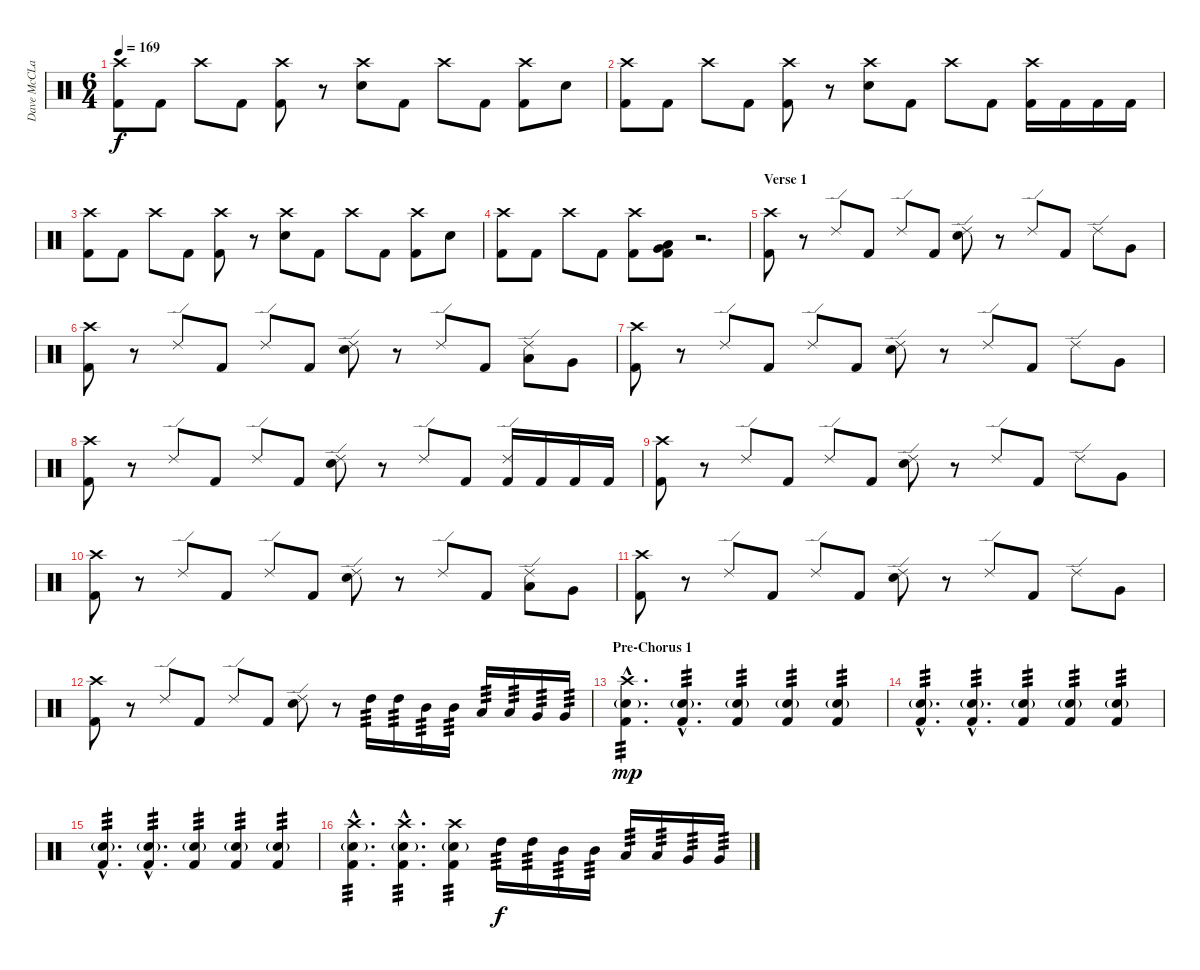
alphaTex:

\track ("Dave McCLain" "Dave McCLa") {instrument percussion}
\staff {score}
\articulation defaults
\ts (6 4)
\tempo 169
\clef neutral
\ks c
("Crash high (hit)" "Kick (hit) 2").8{dy f} "Kick (hit) 2".8 "Crash high (hit)".8 "Kick (hit) 2".8 ("Crash high (hit)" "Kick (hit) 2").8 r.8 ("Crash high (hit)" "Electric Snare (hit)").8 "Kick (hit) 2".8 "Crash high (hit)".8 "Kick (hit) 2".8 ("Crash high (hit)" "Kick (hit) 2").8 "Electric Snare (hit)".8 |
("Crash high (hit)" "Kick (hit) 2").8 "Kick (hit) 2".8 "Crash high (hit)".8 "Kick (hit) 2".8 ("Crash high (hit)" "Kick (hit) 2").8 r.8 ("Crash high (hit)" "Electric Snare (hit)").8 "Kick (hit) 2".8 "Crash high (hit)".8 "Kick (hit) 2".8 ("Crash high (hit)" "Kick (hit) 2").16 "Kick (hit) 2".16 "Kick (hit) 2".16 "Kick (hit) 2".16 |
("Crash high (hit)" "Kick (hit) 2").8 "Kick (hit) 2".8 "Crash high (hit)".8 "Kick (hit) 2".8 ("Crash high (hit)" "Kick (hit) 2").8 r.8 ("Crash high (hit)" "Electric Snare (hit)").8 "Kick (hit) 2".8 "Crash high (hit)".8 "Kick (hit) 2".8 ("Crash high (hit)" "Kick (hit) 2").8 "Electric Snare (hit)".8 |
("Crash high (hit)" "Kick (hit) 2").8 "Kick (hit) 2".8 "Crash high (hit)".8 "Kick (hit) 2".8 ("Crash high (hit)" "Kick (hit) 2").8 ("Low Tom (hit)" "Very Low Tom (hit)" "Kick (hit) 2").8 r.2{d} |
\section ("" "Verse 1")
("Crash high (hit)" "Kick (hit) 2").8 r.8 "Ride (edge) 2".8 "Kick (hit) 2".8 "Ride (edge) 2".8 "Kick (hit) 2".8 ("Ride (edge) 2" "Electric Snare (hit)").8 r.8 "Ride (edge) 2".8 "Kick (hit) 2".8 "Ride (edge) 2".8 "Very Low Tom (hit)".8 |
("Crash high (hit)" "Kick (hit) 2").8 r.8 "Ride (edge) 2".8 "Kick (hit) 2".8 "Ride (edge) 2".8 "Kick (hit) 2".8 ("Ride (edge) 2" "Electric Snare (hit)").8 r.8 "Ride (edge) 2".8 "Kick (hit) 2".8 ("Ride (edge) 2" "Low Floor Tom (hit)").8 "Very Low Tom (hit)".8 |
("Crash high (hit)" "Kick (hit) 2").8 r.8 "Ride (edge) 2".8 "Kick (hit) 2".8 "Ride (edge) 2".8 "Kick (hit) 2".8 ("Ride (edge) 2" "Electric Snare (hit)").8 r.8 "Ride (edge) 2".8 "Kick (hit) 2".8 "Ride (edge) 2".8 "Very Low Tom (hit)".8 |
("Crash high (hit)" "Kick (hit) 2").8 r.8 "Ride (edge) 2".8 "Kick (hit) 2".8 "Ride (edge) 2".8 "Kick (hit) 2".8 ("Ride (edge) 2" "Electric Snare (hit)").8 r.8 "Ride (edge) 2".8 "Kick (hit) 2".8 ("Ride (edge) 2" "Kick (hit) 2").16 "Kick (hit) 2".16 "Kick (hit) 2".16 "Kick (hit) 2".16 |
("Crash high (hit)" "Kick (hit) 2").8 r.8 "Ride (edge) 2".8 "Kick (hit) 2".8 "Ride (edge) 2".8 "Kick (hit) 2".8 ("Ride (edge) 2" "Electric Snare (hit)").8 r.8 "Ride (edge) 2".8 "Kick (hit) 2".8 "Ride (edge) 2".8 "Very Low Tom (hit)".8 |
("Crash high (hit)" "Kick (hit) 2").8 r.8 "Ride (edge) 2".8 "Kick (hit) 2".8 "Ride (edge) 2".8 "Kick (hit) 2".8 ("Ride (edge) 2" "Electric Snare (hit)").8 r.8 "Ride (edge) 2".8 "Kick (hit) 2".8 ("Ride (edge) 2" "Low Tom (hit)").8 "Very Low Tom (hit)".8 |
("Crash high (hit)" "Kick (hit) 2").8 r.8 "Ride (edge) 2".8 "Kick (hit) 2".8 "Ride (edge) 2".8 "Kick (hit) 2".8 ("Ride (edge) 2" "Electric Snare (hit)").8 r.8 "Ride (edge) 2".8 "Kick (hit) 2".8 "Ride (edge) 2".8 "Very Low Tom (hit)".8 |
("Crash high (hit)" "Kick (hit) 2").8 r.8 "Ride (edge) 2".8 "Kick (hit) 2".8 "Ride (edge) 2".8 "Kick (hit) 2".8 ("Ride (edge) 2" "Electric Snare (hit)").8 r.8 "High Tom (hit)".16{tp 3} "High Tom (hit)".16{tp 3} "Mid Tom (hit)".16{tp 3} "Mid Tom (hit)".16{tp 3} "Low Tom (hit)".16{tp 3} "Low Tom (hit)".16{tp 3} "Very Low Tom (hit)".16{tp 3} "Very Low Tom (hit)".16{tp 3} |
\section ("" "Pre-Chorus 1")
("Crash high (hit)"{hac} "Electric Snare (hit)"{g hac} "Kick (hit) 2"{hac}).4{d tp 3 dy mp} ("Electric Snare (hit)"{g hac} "Kick (hit) 2"{hac}).4{d tp 3} ("Electric Snare (hit)"{g} "Kick (hit) 2").4{tp 3} ("Electric Snare (hit)"{g} "Kick (hit) 2").4{tp 3} ("Electric Snare (hit)"{g} "Kick (hit) 2").4{tp 3} |
("Electric Snare (hit)"{g hac} "Kick (hit) 2"{hac}).4{d tp 3} ("Electric Snare (hit)"{g hac} "Kick (hit) 2"{hac}).4{d tp 3} ("Electric Snare (hit)"{g} "Kick (hit) 2").4{tp 3} ("Electric Snare (hit)"{g} "Kick (hit) 2").4{tp 3} ("Electric Snare (hit)"{g} "Kick (hit) 2").4{tp 3} |
("Electric Snare (hit)"{g hac} "Kick (hit) 2"{hac}).4{d tp 3} ("Electric Snare (hit)"{g hac} "Kick (hit) 2"{hac}).4{d tp 3} ("Electric Snare (hit)"{g} "Kick (hit) 2").4{tp 3} ("Electric Snare (hit)"{g} "Kick (hit) 2").4{tp 3} ("Electric Snare (hit)"{g} "Kick (hit) 2").4{tp 3} |
("Crash high (hit)"{hac} "Electric Snare (hit)"{g hac} "Kick (hit) 2"{hac}).4{d tp 3} ("Crash high (hit)"{hac} "Electric Snare (hit)"{g hac} "Kick (hit) 2"{hac}).4{d tp 3} ("Crash high (hit)" "Electric Snare (hit)"{g} "Kick (hit) 2").4{tp 3} "High Tom (hit)".16{tp 3 dy f} "High Tom (hit)".16{tp 3} "Mid Tom (hit)".16{tp 3} "Mid Tom (hit)".16{tp 3} "Low Tom (hit)".16{tp 3} "Low Tom (hit)".16{tp 3} "Very Low Tom (hit)".16{tp 3} "Very Low Tom (hit)".16{tp 3}
